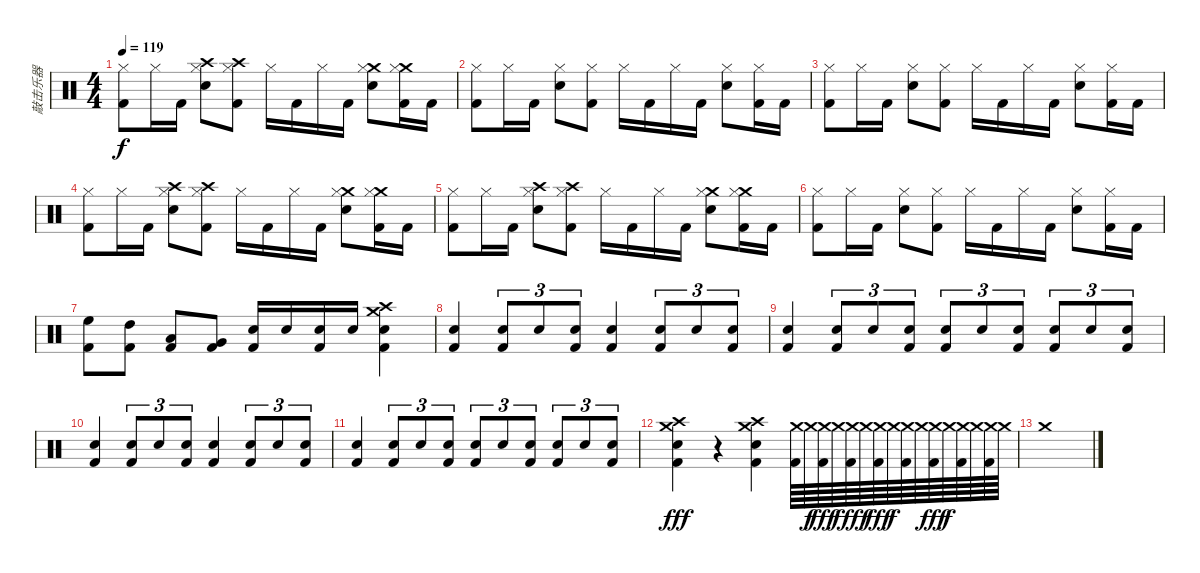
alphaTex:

\track ("敲击乐器" "敲击乐器") {instrument percussion}
\staff {score}
\articulation defaults
\ts (4 4)
\tempo 119
\clef neutral
\ks c
("Hi-Hat (closed)" "Kick (hit) 2").8{dy f} "Hi-Hat (closed)".16 "Kick (hit) 2".16 ("Crash high (hit)" "Hi-Hat (closed)" "Snare (hit) 2").8 ("Crash high (hit)" "Hi-Hat (closed)" "Kick (hit) 2").8 "Hi-Hat (closed)".16 "Kick (hit) 2".16 "Hi-Hat (closed)".16 "Kick (hit) 2".16 ("Crash medium (hit)" "Hi-Hat (closed)" "Snare (hit) 2").8 ("Crash medium (hit)" "Hi-Hat (closed)" "Kick (hit) 2").16 "Kick (hit) 2".16 |
("Hi-Hat (closed)" "Kick (hit) 2").8 "Hi-Hat (closed)".16 "Kick (hit) 2".16 ("Hi-Hat (closed)" "Snare (hit) 2").8 ("Hi-Hat (closed)" "Kick (hit) 2").8 "Hi-Hat (closed)".16 "Kick (hit) 2".16 "Hi-Hat (closed)".16 "Kick (hit) 2".16 ("Hi-Hat (closed)" "Snare (hit) 2").8 ("Hi-Hat (closed)" "Kick (hit) 2").16 "Kick (hit) 2".16 |
("Hi-Hat (closed)" "Kick (hit) 2").8 "Hi-Hat (closed)".16 "Kick (hit) 2".16 ("Hi-Hat (closed)" "Snare (hit) 2").8 ("Hi-Hat (closed)" "Kick (hit) 2").8 "Hi-Hat (closed)".16 "Kick (hit) 2".16 "Hi-Hat (closed)".16 "Kick (hit) 2".16 ("Hi-Hat (closed)" "Snare (hit) 2").8 ("Hi-Hat (closed)" "Kick (hit) 2").16 "Kick (hit) 2".16 |
("Hi-Hat (closed)" "Kick (hit) 2").8 "Hi-Hat (closed)".16 "Kick (hit) 2".16 ("Crash high (hit)" "Hi-Hat (closed)" "Snare (hit) 2").8 ("Crash high (hit)" "Hi-Hat (closed)" "Kick (hit) 2").8 "Hi-Hat (closed)".16 "Kick (hit) 2".16 "Hi-Hat (closed)".16 "Kick (hit) 2".16 ("Crash medium (hit)" "Hi-Hat (closed)" "Snare (hit) 2").8 ("Crash medium (hit)" "Hi-Hat (closed)" "Kick (hit) 2").16 "Kick (hit) 2".16 |
("Hi-Hat (closed)" "Kick (hit) 2").8 "Hi-Hat (closed)".16 "Kick (hit) 2".16 ("Crash high (hit)" "Hi-Hat (closed)" "Snare (hit) 2").8 ("Crash high (hit)" "Hi-Hat (closed)" "Kick (hit) 2").8 "Hi-Hat (closed)".16 "Kick (hit) 2".16 "Hi-Hat (closed)".16 "Kick (hit) 2".16 ("Crash medium (hit)" "Hi-Hat (closed)" "Snare (hit) 2").8 ("Crash medium (hit)" "Hi-Hat (closed)" "Kick (hit) 2").16 "Kick (hit) 2".16 |
("Hi-Hat (closed)" "Kick (hit) 2").8 "Hi-Hat (closed)".16 "Kick (hit) 2".16 ("Hi-Hat (closed)" "Snare (hit) 2").8 ("Hi-Hat (closed)" "Kick (hit) 2").8 "Hi-Hat (closed)".16 "Kick (hit) 2".16 "Hi-Hat (closed)".16 "Kick (hit) 2".16 ("Hi-Hat (closed)" "Snare (hit) 2").8 ("Hi-Hat (closed)" "Kick (hit) 2").16 "Kick (hit) 2".16 |
("High Floor Tom (hit)" "Kick (hit) 2").8 ("High Tom (hit)" "Kick (hit) 2").8 ("Low Tom (hit)" "Kick (hit) 2").8 ("Very Low Tom (hit)" "Kick (hit) 2").8 ("Snare (hit) 2" "Kick (hit) 2").16 "Snare (hit) 2".16 ("Snare (hit) 2" "Kick (hit) 2").16 "Snare (hit) 2".16 ("Crash medium (hit)" "Crash high (hit)" "Snare (hit) 2" "Kick (hit) 2").4 |
("Snare (hit) 2" "Kick (hit) 2").4 ("Snare (hit) 2" "Kick (hit) 2").8{tu (3 2)} "Snare (hit) 2".8{tu (3 2)} ("Snare (hit) 2" "Kick (hit) 2").8{tu (3 2)} ("Snare (hit) 2" "Kick (hit) 2").4 ("Snare (hit) 2" "Kick (hit) 2").8{tu (3 2)} "Snare (hit) 2".8{tu (3 2)} ("Snare (hit) 2" "Kick (hit) 2").8{tu (3 2)} |
("Snare (hit) 2" "Kick (hit) 2").4 ("Snare (hit) 2" "Kick (hit) 2").8{tu (3 2)} "Snare (hit) 2".8{tu (3 2)} ("Snare (hit) 2" "Kick (hit) 2").8{tu (3 2)} ("Snare (hit) 2" "Kick (hit) 2").8{tu (3 2)} "Snare (hit) 2".8{tu (3 2)} ("Snare (hit) 2" "Kick (hit) 2").8{tu (3 2)} ("Snare (hit) 2" "Kick (hit) 2").8{tu (3 2)} "Snare (hit) 2".8{tu (3 2)} ("Snare (hit) 2" "Kick (hit) 2").8{tu (3 2)} |
("Snare (hit) 2" "Kick (hit) 2").4 ("Snare (hit) 2" "Kick (hit) 2").8{tu (3 2)} "Snare (hit) 2".8{tu (3 2)} ("Snare (hit) 2" "Kick (hit) 2").8{tu (3 2)} ("Snare (hit) 2" "Kick (hit) 2").4 ("Snare (hit) 2" "Kick (hit) 2").8{tu (3 2)} "Snare (hit) 2".8{tu (3 2)} ("Snare (hit) 2" "Kick (hit) 2").8{tu (3 2)} |
("Snare (hit) 2" "Kick (hit) 2").4 ("Snare (hit) 2" "Kick (hit) 2").8{tu (3 2)} "Snare (hit) 2".8{tu (3 2)} ("Snare (hit) 2" "Kick (hit) 2").8{tu (3 2)} ("Snare (hit) 2" "Kick (hit) 2").8{tu (3 2)} "Snare (hit) 2".8{tu (3 2)} ("Snare (hit) 2" "Kick (hit) 2").8{tu (3 2)} ("Snare (hit) 2" "Kick (hit) 2").8{tu (3 2)} "Snare (hit) 2".8{tu (3 2)} ("Snare (hit) 2" "Kick (hit) 2").8{tu (3 2)} |
("Crash medium (hit)" "Crash high (hit)" "Snare (hit) 2" "Kick (hit) 2").4{dy fff} r.4 ("Crash medium (hit)" "Crash high (hit)" "Snare (hit) 2" "Kick (hit) 2").4 ("Crash medium (hit)" "Kick (hit) 2").64 "Crash medium (hit)".64{dy f} ("Crash medium (hit)" "Kick (hit) 2").64{dy fff} "Crash medium (hit)".64{dy f} ("Crash medium (hit)" "Kick (hit) 2").64{dy ff} "Crash medium (hit)".64{dy f} ("Crash medium (hit)" "Kick (hit) 2").64{dy fff} "Crash medium (hit)".64{dy f} ("Crash medium (hit)" "Kick (hit) 2").64 "Crash medium (hit)".64 ("Crash medium (hit)" "Kick (hit) 2").64{dy fff} "Crash medium (hit)".64{dy f} ("Crash medium (hit)" "Kick (hit) 2").64 "Crash medium (hit)".64 ("Crash medium (hit)" "Kick (hit) 2").64 "Crash medium (hit)".64 |
"Crash medium (hit)".1
